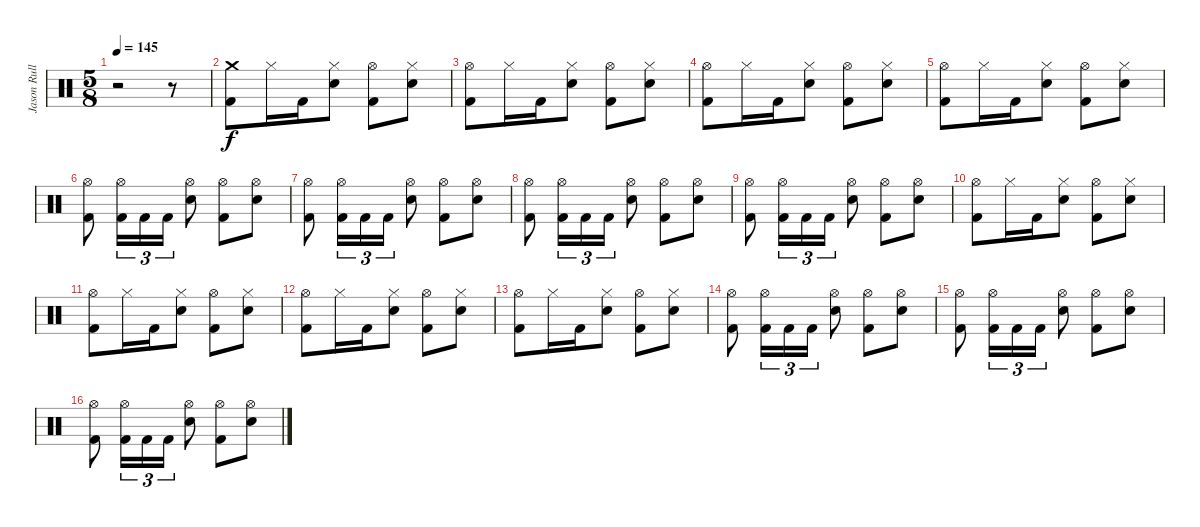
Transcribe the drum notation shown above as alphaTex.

\track ("Jason Rullo" "Jason Rull") {instrument percussion}
\staff {score}
\articulation defaults
\ts (5 8)
\tempo 145
\clef neutral
\ks c
r.2{dy f} r.8 |
("Crash medium (hit)" "Kick (hit) 2").8 "Hi-Hat (closed)".16 "Kick (hit) 2".16 ("Hi-Hat (closed)" "Electric Snare (hit)").8 ("Hi-Hat (open)" "Kick (hit) 2").8 ("Hi-Hat (closed)" "Electric Snare (hit)").8 |
("Hi-Hat (open)" "Kick (hit) 2").8 "Hi-Hat (closed)".16 "Kick (hit) 2".16 ("Hi-Hat (closed)" "Electric Snare (hit)").8 ("Hi-Hat (open)" "Kick (hit) 2").8 ("Hi-Hat (closed)" "Electric Snare (hit)").8 |
("Hi-Hat (open)" "Kick (hit) 2").8 "Hi-Hat (closed)".16 "Kick (hit) 2".16 ("Hi-Hat (closed)" "Electric Snare (hit)").8 ("Hi-Hat (open)" "Kick (hit) 2").8 ("Hi-Hat (closed)" "Electric Snare (hit)").8 |
("Hi-Hat (open)" "Kick (hit) 2").8 "Hi-Hat (closed)".16 "Kick (hit) 2".16 ("Hi-Hat (closed)" "Electric Snare (hit)").8 ("Hi-Hat (open)" "Kick (hit) 2").8 ("Hi-Hat (closed)" "Electric Snare (hit)").8 |
("Hi-Hat (open)" "Kick (hit) 2").8 ("Hi-Hat (open)" "Kick (hit) 2").16{tu (3 2)} "Kick (hit) 2".16{tu (3 2)} "Kick (hit) 2".16{tu (3 2)} ("Hi-Hat (open)" "Electric Snare (hit)").8 ("Hi-Hat (open)" "Kick (hit) 2").8 ("Hi-Hat (open)" "Electric Snare (hit)").8 |
("Hi-Hat (open)" "Kick (hit) 2").8 ("Hi-Hat (open)" "Kick (hit) 2").16{tu (3 2)} "Kick (hit) 2".16{tu (3 2)} "Kick (hit) 2".16{tu (3 2)} ("Hi-Hat (open)" "Electric Snare (hit)").8 ("Hi-Hat (open)" "Kick (hit) 2").8 ("Hi-Hat (open)" "Electric Snare (hit)").8 |
("Hi-Hat (open)" "Kick (hit) 2").8 ("Hi-Hat (open)" "Kick (hit) 2").16{tu (3 2)} "Kick (hit) 2".16{tu (3 2)} "Kick (hit) 2".16{tu (3 2)} ("Hi-Hat (open)" "Electric Snare (hit)").8 ("Hi-Hat (open)" "Kick (hit) 2").8 ("Hi-Hat (open)" "Electric Snare (hit)").8 |
("Hi-Hat (open)" "Kick (hit) 2").8 ("Hi-Hat (open)" "Kick (hit) 2").16{tu (3 2)} "Kick (hit) 2".16{tu (3 2)} "Kick (hit) 2".16{tu (3 2)} ("Hi-Hat (open)" "Electric Snare (hit)").8 ("Hi-Hat (open)" "Kick (hit) 2").8 ("Hi-Hat (open)" "Electric Snare (hit)").8 |
("Hi-Hat (open)" "Kick (hit) 2").8 "Hi-Hat (closed)".16 "Kick (hit) 2".16 ("Hi-Hat (closed)" "Electric Snare (hit)").8 ("Hi-Hat (open)" "Kick (hit) 2").8 ("Hi-Hat (closed)" "Electric Snare (hit)").8 |
("Hi-Hat (open)" "Kick (hit) 2").8 "Hi-Hat (closed)".16 "Kick (hit) 2".16 ("Hi-Hat (closed)" "Electric Snare (hit)").8 ("Hi-Hat (open)" "Kick (hit) 2").8 ("Hi-Hat (closed)" "Electric Snare (hit)").8 |
("Hi-Hat (open)" "Kick (hit) 2").8 "Hi-Hat (closed)".16 "Kick (hit) 2".16 ("Hi-Hat (closed)" "Electric Snare (hit)").8 ("Hi-Hat (open)" "Kick (hit) 2").8 ("Hi-Hat (closed)" "Electric Snare (hit)").8 |
("Hi-Hat (open)" "Kick (hit) 2").8 "Hi-Hat (closed)".16 "Kick (hit) 2".16 ("Hi-Hat (closed)" "Electric Snare (hit)").8 ("Hi-Hat (open)" "Kick (hit) 2").8 ("Hi-Hat (closed)" "Electric Snare (hit)").8 |
("Hi-Hat (open)" "Kick (hit) 2").8 ("Hi-Hat (open)" "Kick (hit) 2").16{tu (3 2)} "Kick (hit) 2".16{tu (3 2)} "Kick (hit) 2".16{tu (3 2)} ("Hi-Hat (open)" "Electric Snare (hit)").8 ("Hi-Hat (open)" "Kick (hit) 2").8 ("Hi-Hat (open)" "Electric Snare (hit)").8 |
("Hi-Hat (open)" "Kick (hit) 2").8 ("Hi-Hat (open)" "Kick (hit) 2").16{tu (3 2)} "Kick (hit) 2".16{tu (3 2)} "Kick (hit) 2".16{tu (3 2)} ("Hi-Hat (open)" "Electric Snare (hit)").8 ("Hi-Hat (open)" "Kick (hit) 2").8 ("Hi-Hat (open)" "Electric Snare (hit)").8 |
("Hi-Hat (open)" "Kick (hit) 2").8 ("Hi-Hat (open)" "Kick (hit) 2").16{tu (3 2)} "Kick (hit) 2".16{tu (3 2)} "Kick (hit) 2".16{tu (3 2)} ("Hi-Hat (open)" "Electric Snare (hit)").8 ("Hi-Hat (open)" "Kick (hit) 2").8 ("Hi-Hat (open)" "Electric Snare (hit)").8
